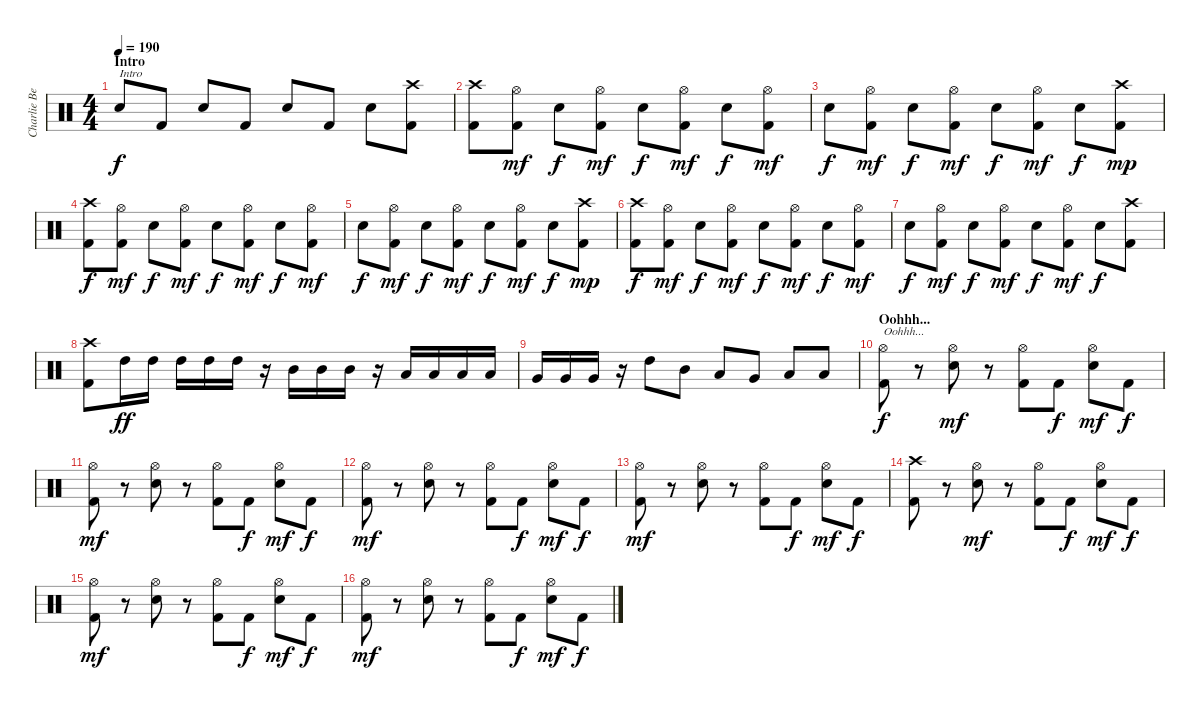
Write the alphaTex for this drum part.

\track ("Charlie Benante" "Charlie Be") {instrument percussion}
\staff {score}
\articulation defaults
\ts (4 4)
\section ("" "Intro")
\tempo 190
\clef neutral
\ks c "Electric Snare (hit)".8{txt "Intro" dy f} "Kick (hit) 2".8 "Electric Snare (hit)".8 "Kick (hit) 2".8 "Electric Snare (hit)".8 "Kick (hit) 2".8 "Electric Snare (hit)".8
("Crash high (hit)" "Kick (hit) 2").8 |
("Crash high (hit)" "Kick (hit) 2").8 ("Hi-Hat (open)" "Kick (hit) 2").8{dy mf} "Electric Snare (hit)".8{dy f} ("Hi-Hat (open)" "Kick (hit) 2").8{dy mf} "Electric Snare (hit)".8{dy f} ("Hi-Hat (open)" "Kick (hit) 2").8{dy mf} "Electric Snare (hit)".8{dy f} ("Hi-Hat (open)" "Kick (hit) 2").8{dy mf} |
"Electric Snare (hit)".8{dy f} ("Hi-Hat (open)" "Kick (hit) 2").8{dy mf} "Electric Snare (hit)".8{dy f} ("Hi-Hat (open)" "Kick (hit) 2").8{dy mf} "Electric Snare (hit)".8{dy f} ("Hi-Hat (open)" "Kick (hit) 2").8{dy mf} "Electric Snare (hit)".8{dy f} ("Crash high (hit)" "Kick (hit) 2").8{dy mp} |
("Crash high (hit)" "Kick (hit) 2").8{dy f} ("Hi-Hat (open)" "Kick (hit) 2").8{dy mf} "Electric Snare (hit)".8{dy f} ("Hi-Hat (open)" "Kick (hit) 2").8{dy mf} "Electric Snare (hit)".8{dy f} ("Hi-Hat (open)" "Kick (hit) 2").8{dy mf} "Electric Snare (hit)".8{dy f} ("Hi-Hat (open)" "Kick (hit) 2").8{dy mf} |
"Electric Snare (hit)".8{dy f} ("Hi-Hat (open)" "Kick (hit) 2").8{dy mf} "Electric Snare (hit)".8{dy f} ("Hi-Hat (open)" "Kick (hit) 2").8{dy mf} "Electric Snare (hit)".8{dy f} ("Hi-Hat (open)" "Kick (hit) 2").8{dy mf} "Electric Snare (hit)".8{dy f} ("Crash high (hit)" "Kick (hit) 2").8{dy mp} |
("Crash high (hit)" "Kick (hit) 2").8{dy f} ("Hi-Hat (open)" "Kick (hit) 2").8{dy mf} "Electric Snare (hit)".8{dy f} ("Hi-Hat (open)" "Kick (hit) 2").8{dy mf} "Electric Snare (hit)".8{dy f} ("Hi-Hat (open)" "Kick (hit) 2").8{dy mf} "Electric Snare (hit)".8{dy f} ("Hi-Hat (open)" "Kick (hit) 2").8{dy mf} |
"Electric Snare (hit)".8{dy f} ("Hi-Hat (open)" "Kick (hit) 2").8{dy mf} "Electric Snare (hit)".8{dy f} ("Hi-Hat (open)" "Kick (hit) 2").8{dy mf} "Electric Snare (hit)".8{dy f} ("Hi-Hat (open)" "Kick (hit) 2").8{dy mf} "Electric Snare (hit)".8{dy f} ("Crash high (hit)" "Kick (hit) 2").8 |
("Crash high (hit)" "Kick (hit) 2").8 "High Tom (hit)".16{dy ff} "High Tom (hit)".16 "High Tom (hit)".16 "High Tom (hit)".16 "High Tom (hit)".16 r.16 "Mid Tom (hit)".16 "Mid Tom (hit)".16 "Mid Tom (hit)".16 r.16 "Low Tom (hit)".16 "Low Tom (hit)".16 "Low Tom (hit)".16 "Low Tom (hit)".16 |
"Very Low Tom (hit)".16 "Very Low Tom (hit)".16 "Very Low Tom (hit)".16 r.16 "High Tom (hit)".8 "Mid Tom (hit)".8 "Low Tom (hit)".8 "Very Low Tom (hit)".8 "Low Floor Tom (hit)".8 "Low Tom (hit)".8 |
\section ("" "Oohhh...")
("Hi-Hat (open)" "Kick (hit) 2").8{txt "Oohhh..." dy f} r.8 ("Hi-Hat (open)" "Electric Snare (hit)").8{dy mf} r.8 ("Hi-Hat (open)" "Kick (hit) 2").8 "Kick (hit) 2".8{dy f} ("Hi-Hat (open)" "Electric Snare (hit)").8{dy mf} "Kick (hit) 2".8{dy f} |
("Hi-Hat (open)" "Kick (hit) 2").8{dy mf} r.8 ("Hi-Hat (open)" "Electric Snare (hit)").8 r.8 ("Hi-Hat (open)" "Kick (hit) 2").8 "Kick (hit) 2".8{dy f} ("Hi-Hat (open)" "Electric Snare (hit)").8{dy mf} "Kick (hit) 2".8{dy f} |
("Hi-Hat (open)" "Kick (hit) 2").8{dy mf} r.8 ("Hi-Hat (open)" "Electric Snare (hit)").8 r.8 ("Hi-Hat (open)" "Kick (hit) 2").8 "Kick (hit) 2".8{dy f} ("Hi-Hat (open)" "Electric Snare (hit)").8{dy mf} "Kick (hit) 2".8{dy f} |
("Hi-Hat (open)" "Kick (hit) 2").8{dy mf} r.8 ("Hi-Hat (open)" "Electric Snare (hit)").8 r.8 ("Hi-Hat (open)" "Kick (hit) 2").8 "Kick (hit) 2".8{dy f} ("Hi-Hat (open)" "Electric Snare (hit)").8{dy mf} "Kick (hit) 2".8{dy f} |
("Crash high (hit)" "Kick (hit) 2").8 r.8 ("Hi-Hat (open)" "Electric Snare (hit)").8{dy mf} r.8 ("Hi-Hat (open)" "Kick (hit) 2").8 "Kick (hit) 2".8{dy f} ("Hi-Hat (open)" "Electric Snare (hit)").8{dy mf} "Kick (hit) 2".8{dy f} |
("Hi-Hat (open)" "Kick (hit) 2").8{dy mf} r.8 ("Hi-Hat (open)" "Electric Snare (hit)").8 r.8 ("Hi-Hat (open)" "Kick (hit) 2").8 "Kick (hit) 2".8{dy f} ("Hi-Hat (open)" "Electric Snare (hit)").8{dy mf} "Kick (hit) 2".8{dy f} |
("Hi-Hat (open)" "Kick (hit) 2").8{dy mf} r.8 ("Hi-Hat (open)" "Electric Snare (hit)").8 r.8 ("Hi-Hat (open)" "Kick (hit) 2").8 "Kick (hit) 2".8{dy f} ("Hi-Hat (open)" "Electric Snare (hit)").8{dy mf} "Kick (hit) 2".8{dy f}
